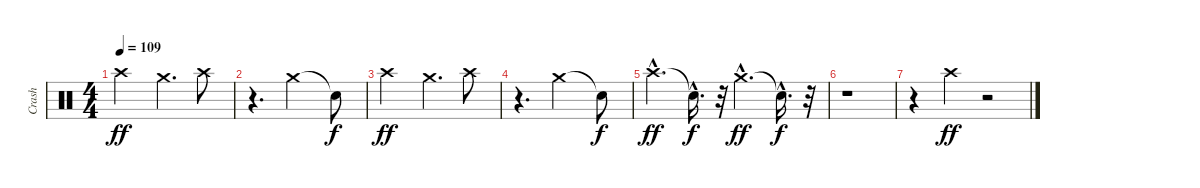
\track ("Crash" "Crash") {instrument percussion}
\staff {score}
\articulation defaults
\ts (4 4)
\tempo 109
\clef neutral
\ks c "Crash high (hit)".2{dy ff} "Crash medium (hit)".4{d} "Crash high (hit)".8
|
r.4{d} "Crash medium (hit)".2 "Snare (hit)"{t}.8{dy f} |
"Crash high (hit)".2{dy ff} "Crash medium (hit)".4{d} "Crash high (hit)".8 |
r.4{d} "Crash medium (hit)".2 "Snare (hit)"{t}.8{dy f} |
"Crash high (hit)"{hac}.4{d dy ff} "Snare (hit)"{hac t}.16{d dy f} r.32 "Crash medium (hit)"{hac}.4{d dy ff} "Snare (hit)"{hac t}.16{d dy f} r.32 |
r.1 |
r.4 "Crash high (hit)".4{dy ff} r.2
